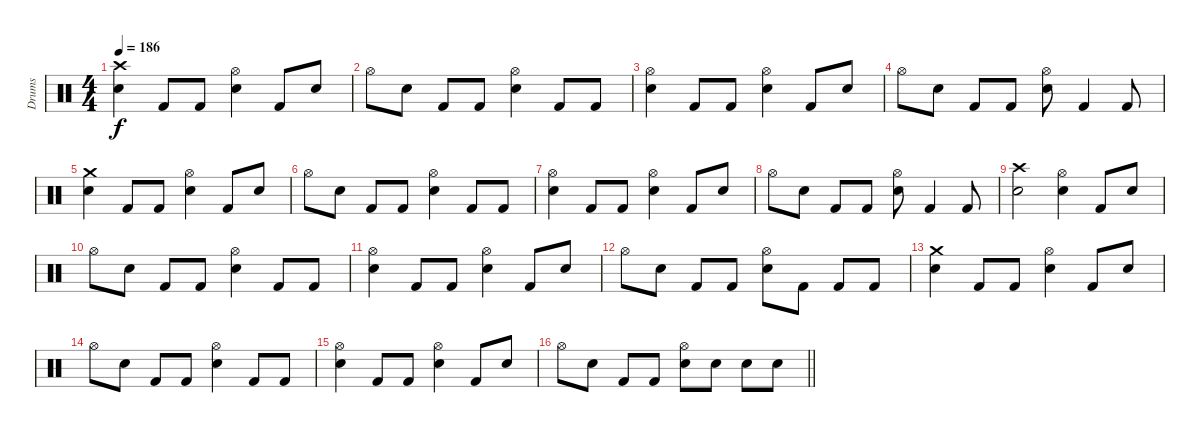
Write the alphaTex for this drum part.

\track ("Drums" "Drums") {instrument percussion}
\staff {score}
\articulation defaults
\ts (4 4)
\section ("" "")
\tempo 186
\clef neutral
\ks c
("Crash high (hit)" "Electric Snare (hit)").4{dy f} "Kick (hit) 2".8 "Kick (hit) 2".8 ("Hi-Hat (open)" "Electric Snare (hit)").4 "Kick (hit) 2".8 "Electric Snare (hit)".8 |
"Hi-Hat (open)".8 "Electric Snare (hit)".8 "Kick (hit) 2".8 "Kick (hit) 2".8 ("Hi-Hat (open)" "Electric Snare (hit)").4 "Kick (hit) 2".8 "Kick (hit) 2".8 |
("Hi-Hat (open)" "Electric Snare (hit)").4 "Kick (hit) 2".8 "Kick (hit) 2".8 ("Hi-Hat (open)" "Electric Snare (hit)").4 "Kick (hit) 2".8 "Electric Snare (hit)".8 |
"Hi-Hat (open)".8 "Electric Snare (hit)".8 "Kick (hit) 2".8 "Kick (hit) 2".8 ("Hi-Hat (open)" "Electric Snare (hit)").8 "Kick (hit) 2".4 "Kick (hit) 2".8 |
("Crash medium (hit)" "Electric Snare (hit)").4 "Kick (hit) 2".8 "Kick (hit) 2".8 ("Hi-Hat (open)" "Electric Snare (hit)").4 "Kick (hit) 2".8 "Electric Snare (hit)".8 |
"Hi-Hat (open)".8 "Electric Snare (hit)".8 "Kick (hit) 2".8 "Kick (hit) 2".8 ("Hi-Hat (open)" "Electric Snare (hit)").4 "Kick (hit) 2".8 "Kick (hit) 2".8 |
("Hi-Hat (open)" "Electric Snare (hit)").4 "Kick (hit) 2".8 "Kick (hit) 2".8 ("Hi-Hat (open)" "Electric Snare (hit)").4 "Kick (hit) 2".8 "Electric Snare (hit)".8 |
"Hi-Hat (open)".8 "Electric Snare (hit)".8 "Kick (hit) 2".8 "Kick (hit) 2".8 ("Hi-Hat (open)" "Electric Snare (hit)").8 "Kick (hit) 2".4 "Kick (hit) 2".8 |
("Crash high (hit)" "Electric Snare (hit)").2 ("Hi-Hat (open)" "Electric Snare (hit)").4 "Kick (hit) 2".8 "Electric Snare (hit)".8 |
"Hi-Hat (open)".8 "Electric Snare (hit)".8 "Kick (hit) 2".8 "Kick (hit) 2".8 ("Hi-Hat (open)" "Electric Snare (hit)").4 "Kick (hit) 2".8 "Kick (hit) 2".8 |
("Hi-Hat (open)" "Electric Snare (hit)").4 "Kick (hit) 2".8 "Kick (hit) 2".8 ("Hi-Hat (open)" "Electric Snare (hit)").4 "Kick (hit) 2".8 "Electric Snare (hit)".8 |
"Hi-Hat (open)".8 "Electric Snare (hit)".8 "Kick (hit) 2".8 "Kick (hit) 2".8 ("Hi-Hat (open)" "Electric Snare (hit)").8 "Kick (hit) 2".8 "Kick (hit) 2".8 "Kick (hit) 2".8 |
("Crash medium (hit)" "Electric Snare (hit)").4 "Kick (hit) 2".8 "Kick (hit) 2".8 ("Hi-Hat (open)" "Electric Snare (hit)").4 "Kick (hit) 2".8 "Electric Snare (hit)".8 |
"Hi-Hat (open)".8 "Electric Snare (hit)".8 "Kick (hit) 2".8 "Kick (hit) 2".8 ("Hi-Hat (open)" "Electric Snare (hit)").4 "Kick (hit) 2".8 "Kick (hit) 2".8 |
("Hi-Hat (open)" "Electric Snare (hit)").4 "Kick (hit) 2".8 "Kick (hit) 2".8 ("Hi-Hat (open)" "Electric Snare (hit)").4 "Kick (hit) 2".8 "Electric Snare (hit)".8 |
\barLineRight lightlight "Hi-Hat (open)".8 "Electric Snare (hit)".8 "Kick (hit) 2".8 "Kick (hit) 2".8
("Hi-Hat (open)" "Electric Snare (hit)").8 "Electric Snare (hit)".8 "Electric Snare (hit)".8 "Electric Snare (hit)".8
